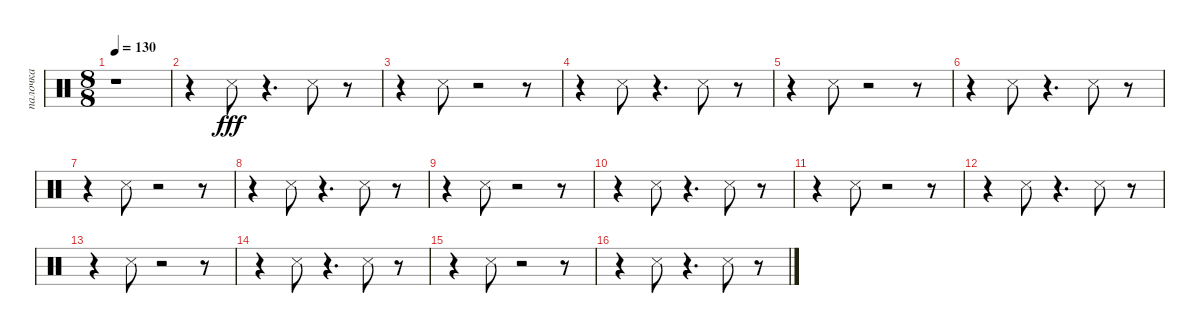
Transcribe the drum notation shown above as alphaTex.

\track ("палочка" "палочка") {instrument percussion}
\staff {score}
\articulation defaults
\ts (8 8)
\tempo 130
\clef neutral
\ks c
r.1{dy fff} |
r.4 "Snare (side stick) 3".8 r.4{d} "Snare (side stick) 3".8 r.8 |
r.4 "Snare (side stick) 3".8 r.2 r.8 |
r.4 "Snare (side stick) 3".8 r.4{d} "Snare (side stick) 3".8 r.8 |
r.4 "Snare (side stick) 3".8 r.2 r.8 |
r.4 "Snare (side stick) 3".8 r.4{d} "Snare (side stick) 3".8 r.8 |
r.4 "Snare (side stick) 3".8 r.2 r.8 |
r.4 "Snare (side stick) 3".8 r.4{d} "Snare (side stick) 3".8 r.8 |
r.4 "Snare (side stick) 3".8 r.2 r.8 |
r.4 "Snare (side stick) 3".8 r.4{d} "Snare (side stick) 3".8 r.8 |
r.4 "Snare (side stick) 3".8 r.2 r.8 |
r.4 "Snare (side stick) 3".8 r.4{d} "Snare (side stick) 3".8 r.8 |
r.4 "Snare (side stick) 3".8 r.2 r.8 |
r.4 "Snare (side stick) 3".8 r.4{d} "Snare (side stick) 3".8 r.8 |
r.4 "Snare (side stick) 3".8 r.2 r.8 |
r.4 "Snare (side stick) 3".8 r.4{d} "Snare (side stick) 3".8 r.8
